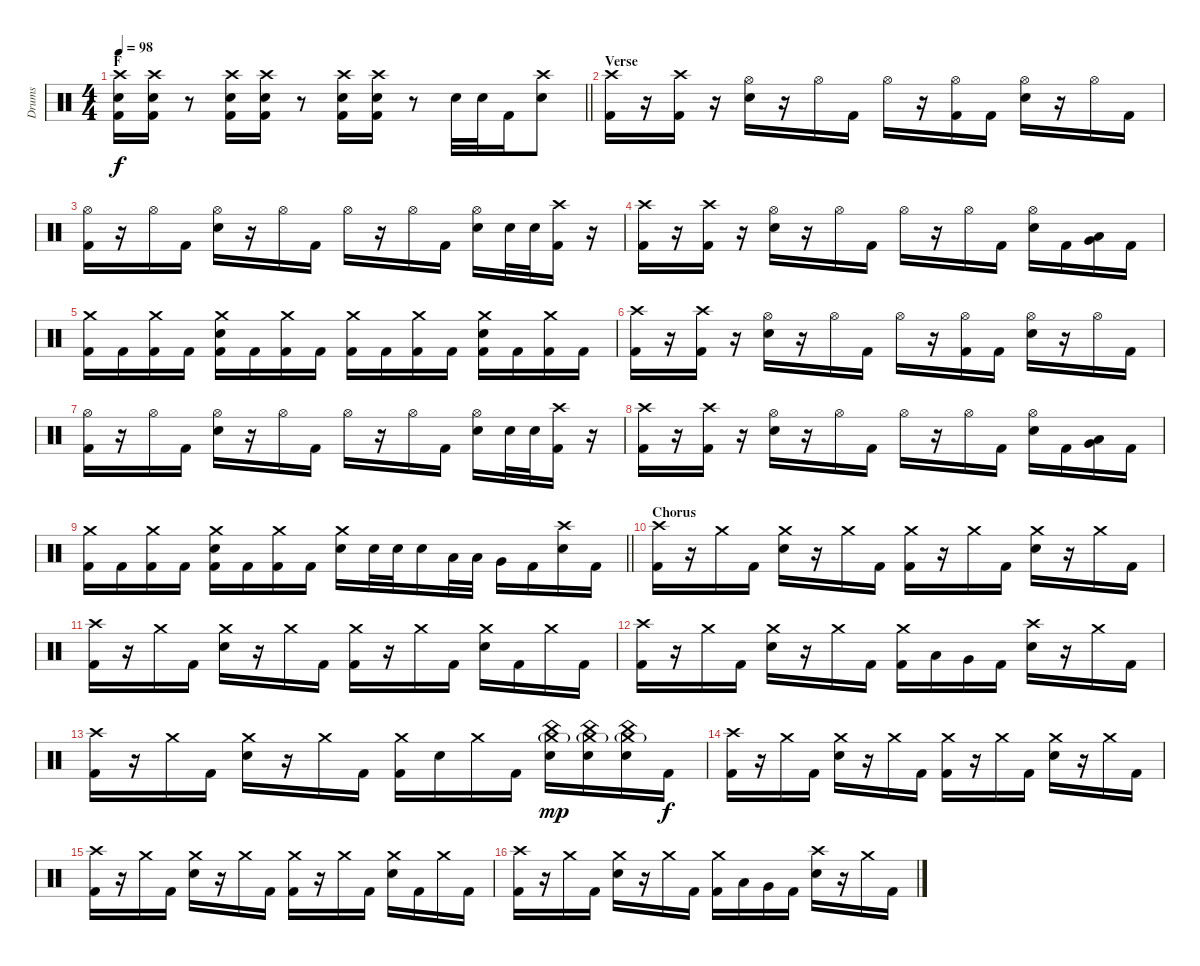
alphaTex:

\track ("Drums" "Drums") {instrument percussion}
\staff {score}
\articulation defaults
\ts (4 4)
\section ("" "F")
\tempo 98
\clef neutral
\barLineRight lightlight
\ks c
("Crash high (hit)" "Snare (hit) 2" "Kick (hit) 2").16{dy f} ("Crash high (hit)" "Snare (hit) 2" "Kick (hit) 2").16 r.8 ("Crash high (hit)" "Snare (hit) 2" "Kick (hit) 2").16 ("Crash high (hit)" "Snare (hit) 2" "Kick (hit) 2").16 r.8 ("Crash high (hit)" "Snare (hit) 2" "Kick (hit) 2").16 ("Crash high (hit)" "Snare (hit) 2" "Kick (hit) 2").16 r.8 "Snare (hit) 2".32 "Snare (hit) 2".32 "Kick (hit) 2".16 ("Crash high (hit)" "Snare (hit) 2").8 |
\section ("" "Verse")
("Crash high (hit)" "Kick (hit) 2").16 r.16 ("Crash high (hit)" "Kick (hit) 2").16 r.16 ("Hi-Hat (open)" "Snare (hit) 2").16 r.16 "Hi-Hat (open)".16 "Kick (hit) 2".16 "Hi-Hat (open)".16 r.16 ("Hi-Hat (open)" "Kick (hit) 2").16 "Kick (hit) 2".16 ("Hi-Hat (open)" "Snare (hit) 2").16 r.16 "Hi-Hat (open)".16 "Kick (hit) 2".16 |
("Hi-Hat (open)" "Kick (hit) 2").16 r.16 "Hi-Hat (open)".16 "Kick (hit) 2".16 ("Hi-Hat (open)" "Snare (hit) 2").16 r.16 "Hi-Hat (open)".16 "Kick (hit) 2".16 "Hi-Hat (open)".16 r.16 "Hi-Hat (open)".16 "Kick (hit) 2".16 ("Hi-Hat (open)" "Snare (hit) 2").16 "Snare (hit) 2".32 "Snare (hit) 2".32 ("Crash high (hit)" "Kick (hit) 2").16 r.16 |
("Crash high (hit)" "Kick (hit) 2").16 r.16 ("Crash high (hit)" "Kick (hit) 2").16 r.16 ("Hi-Hat (open)" "Snare (hit) 2").16 r.16 "Hi-Hat (open)".16 "Kick (hit) 2".16 "Hi-Hat (open)".16 r.16 "Hi-Hat (open)".16 "Kick (hit) 2".16 ("Hi-Hat (open)" "Snare (hit) 2").16 "Kick (hit) 2".16 ("Low Tom (hit)" "Very Low Tom (hit)").16 "Kick (hit) 2".16 |
("Crash medium (hit)" "Kick (hit) 2").16 "Kick (hit) 2".16 ("Crash medium (hit)" "Kick (hit) 2").16 "Kick (hit) 2".16 ("Crash medium (hit)" "Snare (hit) 2" "Kick (hit) 2").16 "Kick (hit) 2".16 ("Crash medium (hit)" "Kick (hit) 2").16 "Kick (hit) 2".16 ("Crash medium (hit)" "Kick (hit) 2").16 "Kick (hit) 2".16 ("Crash medium (hit)" "Kick (hit) 2").16 "Kick (hit) 2".16 ("Crash medium (hit)" "Snare (hit) 2" "Kick (hit) 2").16 "Kick (hit) 2".16 ("Crash medium (hit)" "Kick (hit) 2").16 "Kick (hit) 2".16 |
("Crash high (hit)" "Kick (hit) 2").16 r.16 ("Crash high (hit)" "Kick (hit) 2").16 r.16 ("Hi-Hat (open)" "Snare (hit) 2").16 r.16 "Hi-Hat (open)".16 "Kick (hit) 2".16 "Hi-Hat (open)".16 r.16 ("Hi-Hat (open)" "Kick (hit) 2").16 "Kick (hit) 2".16 ("Hi-Hat (open)" "Snare (hit) 2").16 r.16 "Hi-Hat (open)".16 "Kick (hit) 2".16 |
("Hi-Hat (open)" "Kick (hit) 2").16 r.16 "Hi-Hat (open)".16 "Kick (hit) 2".16 ("Hi-Hat (open)" "Snare (hit) 2").16 r.16 "Hi-Hat (open)".16 "Kick (hit) 2".16 "Hi-Hat (open)".16 r.16 "Hi-Hat (open)".16 "Kick (hit) 2".16 ("Hi-Hat (open)" "Snare (hit) 2").16 "Snare (hit) 2".32 "Snare (hit) 2".32 ("Crash high (hit)" "Kick (hit) 2").16 r.16 |
("Crash high (hit)" "Kick (hit) 2").16 r.16 ("Crash high (hit)" "Kick (hit) 2").16 r.16 ("Hi-Hat (open)" "Snare (hit) 2").16 r.16 "Hi-Hat (open)".16 "Kick (hit) 2".16 "Hi-Hat (open)".16 r.16 "Hi-Hat (open)".16 "Kick (hit) 2".16 ("Hi-Hat (open)" "Snare (hit) 2").16 "Kick (hit) 2".16 ("Low Tom (hit)" "Very Low Tom (hit)").16 "Kick (hit) 2".16 |
\barLineRight lightlight
("Crash medium (hit)" "Kick (hit) 2").16 "Kick (hit) 2".16 ("Crash medium (hit)" "Kick (hit) 2").16 "Kick (hit) 2".16 ("Crash medium (hit)" "Snare (hit) 2" "Kick (hit) 2").16 "Kick (hit) 2".16 ("Crash medium (hit)" "Kick (hit) 2").16 "Kick (hit) 2".16 ("Crash medium (hit)" "Snare (hit) 2").16 "Snare (hit) 2".32 "Snare (hit) 2".32 "Snare (hit) 2".16 "Low Tom (hit)".32 "Low Tom (hit)".32 "Very Low Tom (hit)".16 "Kick (hit) 2".16 ("Crash high (hit)" "Snare (hit) 2").16 "Kick (hit) 2".16 |
\section ("" "Chorus")
("Crash high (hit)" "Kick (hit) 2").16 r.16 "Crash medium (hit)".16 "Kick (hit) 2".16 ("Crash medium (hit)" "Snare (hit) 2").16 r.16 "Crash medium (hit)".16 "Kick (hit) 2".16 ("Crash medium (hit)" "Kick (hit) 2").16 r.16 "Crash medium (hit)".16 "Kick (hit) 2".16 ("Crash medium (hit)" "Snare (hit) 2").16 r.16 "Crash medium (hit)".16 "Kick (hit) 2".16 |
("Crash high (hit)" "Kick (hit) 2").16 r.16 "Crash medium (hit)".16 "Kick (hit) 2".16 ("Crash medium (hit)" "Snare (hit) 2").16 r.16 "Crash medium (hit)".16 "Kick (hit) 2".16 ("Crash medium (hit)" "Kick (hit) 2").16 r.16 "Crash medium (hit)".16 "Kick (hit) 2".16 ("Crash medium (hit)" "Snare (hit) 2").16 "Kick (hit) 2".16 "Crash medium (hit)".16 "Kick (hit) 2".16 |
("Crash high (hit)" "Kick (hit) 2").16 r.16 "Crash medium (hit)".16 "Kick (hit) 2".16 ("Crash medium (hit)" "Snare (hit) 2").16 r.16 "Crash medium (hit)".16 "Kick (hit) 2".16 ("Crash medium (hit)" "Kick (hit) 2").16 "Low Tom (hit)".16 "Very Low Tom (hit)".16 "Kick (hit) 2".16 ("Crash high (hit)" "Snare (hit) 2").16 r.16 "Crash medium (hit)".16 "Kick (hit) 2".16 |
("Crash high (hit)" "Kick (hit) 2").16 r.16 "Crash medium (hit)".16 "Kick (hit) 2".16 ("Crash medium (hit)" "Snare (hit) 2").16 r.16 "Crash medium (hit)".16 "Kick (hit) 2".16 ("Crash medium (hit)" "Kick (hit) 2").16 "Snare (hit) 2".16 "Crash medium (hit)".16 "Kick (hit) 2".16 ("China (hit)" "Crash medium (hit)"{g} "Snare (hit) 2").16{dy mp} ("China (hit)" "Crash medium (hit)"{g} "Snare (hit) 2").16 ("China (hit)" "Crash medium (hit)"{g} "Snare (hit) 2").16 "Kick (hit) 2".16{dy f} |
("Crash high (hit)" "Kick (hit) 2").16 r.16 "Crash medium (hit)".16 "Kick (hit) 2".16 ("Crash medium (hit)" "Snare (hit) 2").16 r.16 "Crash medium (hit)".16 "Kick (hit) 2".16 ("Crash medium (hit)" "Kick (hit) 2").16 r.16 "Crash medium (hit)".16 "Kick (hit) 2".16 ("Crash medium (hit)" "Snare (hit) 2").16 r.16 "Crash medium (hit)".16 "Kick (hit) 2".16 |
("Crash high (hit)" "Kick (hit) 2").16 r.16 "Crash medium (hit)".16 "Kick (hit) 2".16 ("Crash medium (hit)" "Snare (hit) 2").16 r.16 "Crash medium (hit)".16 "Kick (hit) 2".16 ("Crash medium (hit)" "Kick (hit) 2").16 r.16 "Crash medium (hit)".16 "Kick (hit) 2".16 ("Crash medium (hit)" "Snare (hit) 2").16 "Kick (hit) 2".16 "Crash medium (hit)".16 "Kick (hit) 2".16 |
("Crash high (hit)" "Kick (hit) 2").16 r.16 "Crash medium (hit)".16 "Kick (hit) 2".16 ("Crash medium (hit)" "Snare (hit) 2").16 r.16 "Crash medium (hit)".16 "Kick (hit) 2".16 ("Crash medium (hit)" "Kick (hit) 2").16 "Low Tom (hit)".16 "Very Low Tom (hit)".16 "Kick (hit) 2".16 ("Crash high (hit)" "Snare (hit) 2").16 r.16 "Crash medium (hit)".16 "Kick (hit) 2".16
